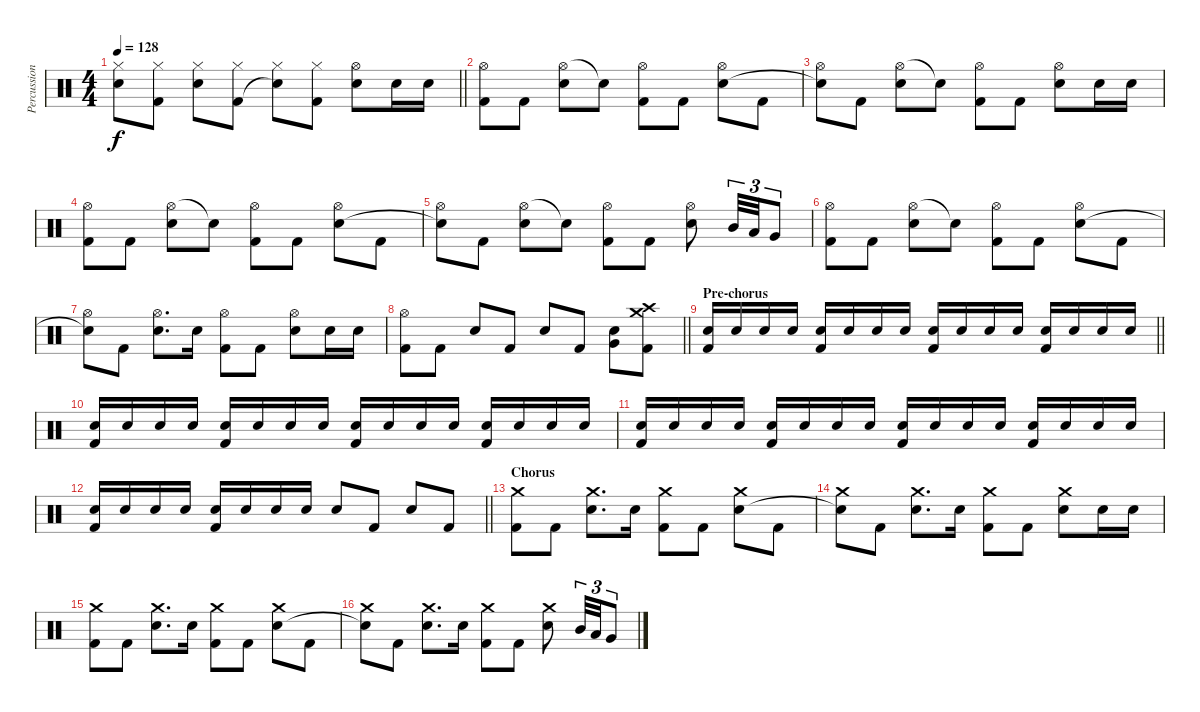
\track ("Percussion" "Percussion") {instrument percussion}
\staff {score}
\articulation defaults
\ts (4 4)
\tempo 128
\clef neutral
\barLineRight lightlight
\ks c
("Hi-Hat (closed)" "Snare (hit)"{t}).8{dy f} ("Hi-Hat (closed)" "Kick (hit) 2").8 ("Hi-Hat (closed)" "Snare (hit) 2").8 ("Hi-Hat (closed)" "Kick (hit) 2").8 ("Hi-Hat (closed)" "Snare (hit)"{t}).8 ("Hi-Hat (closed)" "Kick (hit) 2").8 ("Hi-Hat (open)" "Snare (hit) 2").8 "Snare (hit) 2".16 "Snare (hit) 2".16 |
("Hi-Hat (open)" "Kick (hit) 2").8 "Kick (hit) 2".8 ("Hi-Hat (open)" "Snare (hit) 2").8 "Snare (hit)"{t}.8 ("Hi-Hat (open)" "Kick (hit) 2").8 "Kick (hit) 2".8 ("Hi-Hat (open)" "Snare (hit) 2").8 "Kick (hit) 2".8 |
("Hi-Hat (open)" "Snare (hit)"{t}).8 "Kick (hit) 2".8 ("Hi-Hat (open)" "Snare (hit) 2").8 "Snare (hit)"{t}.8 ("Hi-Hat (open)" "Kick (hit) 2").8 "Kick (hit) 2".8 ("Hi-Hat (open)" "Snare (hit) 2").8 "Snare (hit) 2".16 "Snare (hit) 2".16 |
("Hi-Hat (open)" "Kick (hit) 2").8 "Kick (hit) 2".8 ("Hi-Hat (open)" "Snare (hit) 2").8 "Snare (hit)"{t}.8 ("Hi-Hat (open)" "Kick (hit) 2").8 "Kick (hit) 2".8 ("Hi-Hat (open)" "Snare (hit) 2").8 "Kick (hit) 2".8 |
("Hi-Hat (open)" "Snare (hit)"{t}).8 "Kick (hit) 2".8 ("Hi-Hat (open)" "Snare (hit) 2").8 "Snare (hit)"{t}.8 ("Hi-Hat (open)" "Kick (hit) 2").8 "Kick (hit) 2".8 ("Hi-Hat (open)" "Snare (hit) 2").8 "Mid Tom (hit)".32{tu (3 2)} "Low Tom (hit)".32{tu (3 2)} "Very Low Tom (hit)".8{tu (3 2)} |
("Hi-Hat (open)" "Kick (hit) 2").8 "Kick (hit) 2".8 ("Hi-Hat (open)" "Snare (hit) 2").8 "Snare (hit)"{t}.8 ("Hi-Hat (open)" "Kick (hit) 2").8 "Kick (hit) 2".8 ("Hi-Hat (open)" "Snare (hit) 2").8 "Kick (hit) 2".8 |
("Hi-Hat (open)" "Snare (hit)"{t}).8 "Kick (hit) 2".8 ("Hi-Hat (open)" "Snare (hit) 2").8{d} "Snare (hit) 2".16 ("Hi-Hat (open)" "Kick (hit) 2").8 "Kick (hit) 2".8 ("Hi-Hat (open)" "Snare (hit) 2").8 "Snare (hit) 2".16 "Snare (hit) 2".16 |
\barLineRight lightlight
("Hi-Hat (open)" "Kick (hit) 2").8 "Kick (hit) 2".8 "Snare (hit) 2".8 "Kick (hit) 2".8 "Snare (hit) 2".8 "Kick (hit) 2".8 ("Snare (hit) 2" "Very Low Tom (hit)").8 ("Crash high (hit)" "Crash medium (hit)" "Kick (hit) 2").8 |
\section ("" "Pre-chorus")
\barLineRight lightlight
("Snare (hit) 2" "Kick (hit) 2").16 "Snare (hit) 2".16 "Snare (hit) 2".16 "Snare (hit) 2".16 ("Snare (hit) 2" "Kick (hit) 2").16 "Snare (hit) 2".16 "Snare (hit) 2".16 "Snare (hit) 2".16 ("Snare (hit) 2" "Kick (hit) 2").16 "Snare (hit) 2".16 "Snare (hit) 2".16 "Snare (hit) 2".16 ("Snare (hit) 2" "Kick (hit) 2").16 "Snare (hit) 2".16 "Snare (hit) 2".16 "Snare (hit) 2".16 |
("Snare (hit) 2" "Kick (hit) 2").16 "Snare (hit) 2".16 "Snare (hit) 2".16 "Snare (hit) 2".16 ("Snare (hit) 2" "Kick (hit) 2").16 "Snare (hit) 2".16 "Snare (hit) 2".16 "Snare (hit) 2".16 ("Snare (hit) 2" "Kick (hit) 2").16 "Snare (hit) 2".16 "Snare (hit) 2".16 "Snare (hit) 2".16 ("Snare (hit) 2" "Kick (hit) 2").16 "Snare (hit) 2".16 "Snare (hit) 2".16 "Snare (hit) 2".16 |
("Snare (hit) 2" "Kick (hit) 2").16 "Snare (hit) 2".16 "Snare (hit) 2".16 "Snare (hit) 2".16 ("Snare (hit) 2" "Kick (hit) 2").16 "Snare (hit) 2".16 "Snare (hit) 2".16 "Snare (hit) 2".16 ("Snare (hit) 2" "Kick (hit) 2").16 "Snare (hit) 2".16 "Snare (hit) 2".16 "Snare (hit) 2".16 ("Snare (hit) 2" "Kick (hit) 2").16 "Snare (hit) 2".16 "Snare (hit) 2".16 "Snare (hit) 2".16 |
\barLineRight lightlight
("Snare (hit) 2" "Kick (hit) 2").16 "Snare (hit) 2".16 "Snare (hit) 2".16 "Snare (hit) 2".16 ("Snare (hit) 2" "Kick (hit) 2").16 "Snare (hit) 2".16 "Snare (hit) 2".16 "Snare (hit) 2".16 "Snare (hit) 2".8 "Kick (hit) 2".8 "Snare (hit) 2".8 "Kick (hit) 2".8 |
\section ("" "Chorus")
("Crash medium (hit)" "Kick (hit) 2").8 "Kick (hit) 2".8 ("Crash medium (hit)" "Snare (hit) 2").8{d} "Snare (hit) 2".16 ("Crash medium (hit)" "Kick (hit) 2").8 "Kick (hit) 2".8 ("Crash medium (hit)" "Snare (hit) 2").8 "Kick (hit) 2".8 |
("Crash medium (hit)" "Snare (hit)"{t}).8 "Kick (hit) 2".8 ("Crash medium (hit)" "Snare (hit) 2").8{d} "Snare (hit) 2".16 ("Crash medium (hit)" "Kick (hit) 2").8 "Kick (hit) 2".8 ("Crash medium (hit)" "Snare (hit) 2").8 "Snare (hit) 2".16 "Snare (hit) 2".16 |
("Crash medium (hit)" "Kick (hit) 2").8 "Kick (hit) 2".8 ("Crash medium (hit)" "Snare (hit) 2").8{d} "Snare (hit) 2".16 ("Crash medium (hit)" "Kick (hit) 2").8 "Kick (hit) 2".8 ("Crash medium (hit)" "Snare (hit) 2").8 "Kick (hit) 2".8 |
("Crash medium (hit)" "Snare (hit)"{t}).8 "Kick (hit) 2".8 ("Crash medium (hit)" "Snare (hit) 2").8{d} "Snare (hit) 2".16 ("Crash medium (hit)" "Kick (hit) 2").8 "Kick (hit) 2".8 ("Crash medium (hit)" "Snare (hit) 2").8 "Mid Tom (hit)".32{tu (3 2)} "Low Tom (hit)".32{tu (3 2)} "Very Low Tom (hit)".8{tu (3 2)}
